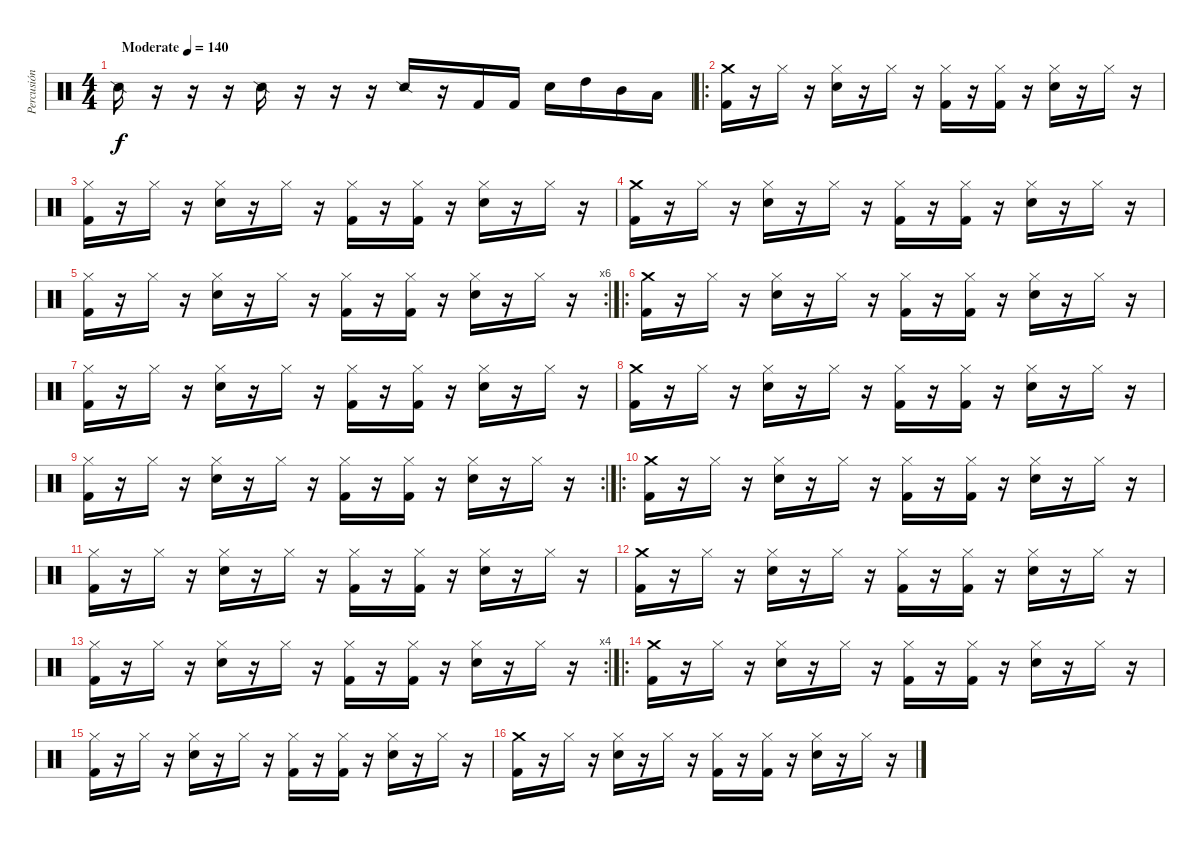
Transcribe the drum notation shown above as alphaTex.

\track ("Percusión" "Percusión") {instrument percussion}
\staff {score}
\articulation defaults
\ts (4 4)
\tempo (140 "Moderate")
\clef neutral
\ks c "Snare (side stick) 2".16{dy f}
r.16 r.16 r.16 "Snare (side stick) 2".16 r.16 r.16 r.16 "Snare (side stick) 2".16 r.16 "Kick (hit) 2".16 "Kick (hit) 2".16 "Electric Snare (hit)".16 "High Tom (hit)".16 "Mid Tom (hit)".16 "Low Tom (hit)".16 |
\ro
("Crash medium (hit)" "Kick (hit) 2").16 r.16 "Hi-Hat (closed)".16 r.16 ("Hi-Hat (closed)" "Electric Snare (hit)").16 r.16 "Hi-Hat (closed)".16 r.16 ("Hi-Hat (closed)" "Kick (hit) 2").16 r.16 ("Hi-Hat (closed)" "Kick (hit) 2").16 r.16 ("Hi-Hat (closed)" "Electric Snare (hit)").16 r.16 "Hi-Hat (closed)".16 r.16 |
("Hi-Hat (closed)" "Kick (hit) 2").16 r.16 "Hi-Hat (closed)".16 r.16 ("Hi-Hat (closed)" "Electric Snare (hit)").16 r.16 "Hi-Hat (closed)".16 r.16 ("Hi-Hat (closed)" "Kick (hit) 2").16 r.16 ("Hi-Hat (closed)" "Kick (hit) 2").16 r.16 ("Hi-Hat (closed)" "Electric Snare (hit)").16 r.16 "Hi-Hat (closed)".16 r.16 |
("Crash medium (hit)" "Kick (hit) 2").16 r.16 "Hi-Hat (closed)".16 r.16 ("Hi-Hat (closed)" "Electric Snare (hit)").16 r.16 "Hi-Hat (closed)".16 r.16 ("Hi-Hat (closed)" "Kick (hit) 2").16 r.16 ("Hi-Hat (closed)" "Kick (hit) 2").16 r.16 ("Hi-Hat (closed)" "Electric Snare (hit)").16 r.16 "Hi-Hat (closed)".16 r.16 |
\rc 6
("Hi-Hat (closed)" "Kick (hit) 2").16 r.16 "Hi-Hat (closed)".16 r.16 ("Hi-Hat (closed)" "Electric Snare (hit)").16 r.16 "Hi-Hat (closed)".16 r.16 ("Hi-Hat (closed)" "Kick (hit) 2").16 r.16 ("Hi-Hat (closed)" "Kick (hit) 2").16 r.16 ("Hi-Hat (closed)" "Electric Snare (hit)").16 r.16 "Hi-Hat (closed)".16 r.16 |
\ro
("Crash medium (hit)" "Kick (hit) 2").16 r.16 "Hi-Hat (closed)".16 r.16 ("Hi-Hat (closed)" "Electric Snare (hit)").16 r.16 "Hi-Hat (closed)".16 r.16 ("Hi-Hat (closed)" "Kick (hit) 2").16 r.16 ("Hi-Hat (closed)" "Kick (hit) 2").16 r.16 ("Hi-Hat (closed)" "Electric Snare (hit)").16 r.16 "Hi-Hat (closed)".16 r.16 |
("Hi-Hat (closed)" "Kick (hit) 2").16 r.16 "Hi-Hat (closed)".16 r.16 ("Hi-Hat (closed)" "Electric Snare (hit)").16 r.16 "Hi-Hat (closed)".16 r.16 ("Hi-Hat (closed)" "Kick (hit) 2").16 r.16 ("Hi-Hat (closed)" "Kick (hit) 2").16 r.16 ("Hi-Hat (closed)" "Electric Snare (hit)").16 r.16 "Hi-Hat (closed)".16 r.16 |
("Crash medium (hit)" "Kick (hit) 2").16 r.16 "Hi-Hat (closed)".16 r.16 ("Hi-Hat (closed)" "Electric Snare (hit)").16 r.16 "Hi-Hat (closed)".16 r.16 ("Hi-Hat (closed)" "Kick (hit) 2").16 r.16 ("Hi-Hat (closed)" "Kick (hit) 2").16 r.16 ("Hi-Hat (closed)" "Electric Snare (hit)").16 r.16 "Hi-Hat (closed)".16 r.16 |
\rc 2
("Hi-Hat (closed)" "Kick (hit) 2").16 r.16 "Hi-Hat (closed)".16 r.16 ("Hi-Hat (closed)" "Electric Snare (hit)").16 r.16 "Hi-Hat (closed)".16 r.16 ("Hi-Hat (closed)" "Kick (hit) 2").16 r.16 ("Hi-Hat (closed)" "Kick (hit) 2").16 r.16 ("Hi-Hat (closed)" "Electric Snare (hit)").16 r.16 "Hi-Hat (closed)".16 r.16 |
\ro
("Crash medium (hit)" "Kick (hit) 2").16 r.16 "Hi-Hat (closed)".16 r.16 ("Hi-Hat (closed)" "Electric Snare (hit)").16 r.16 "Hi-Hat (closed)".16 r.16 ("Hi-Hat (closed)" "Kick (hit) 2").16 r.16 ("Hi-Hat (closed)" "Kick (hit) 2").16 r.16 ("Hi-Hat (closed)" "Electric Snare (hit)").16 r.16 "Hi-Hat (closed)".16 r.16 |
("Hi-Hat (closed)" "Kick (hit) 2").16 r.16 "Hi-Hat (closed)".16 r.16 ("Hi-Hat (closed)" "Electric Snare (hit)").16 r.16 "Hi-Hat (closed)".16 r.16 ("Hi-Hat (closed)" "Kick (hit) 2").16 r.16 ("Hi-Hat (closed)" "Kick (hit) 2").16 r.16 ("Hi-Hat (closed)" "Electric Snare (hit)").16 r.16 "Hi-Hat (closed)".16 r.16 |
("Crash medium (hit)" "Kick (hit) 2").16 r.16 "Hi-Hat (closed)".16 r.16 ("Hi-Hat (closed)" "Electric Snare (hit)").16 r.16 "Hi-Hat (closed)".16 r.16 ("Hi-Hat (closed)" "Kick (hit) 2").16 r.16 ("Hi-Hat (closed)" "Kick (hit) 2").16 r.16 ("Hi-Hat (closed)" "Electric Snare (hit)").16 r.16 "Hi-Hat (closed)".16 r.16 |
\rc 4
("Hi-Hat (closed)" "Kick (hit) 2").16 r.16 "Hi-Hat (closed)".16 r.16 ("Hi-Hat (closed)" "Electric Snare (hit)").16 r.16 "Hi-Hat (closed)".16 r.16 ("Hi-Hat (closed)" "Kick (hit) 2").16 r.16 ("Hi-Hat (closed)" "Kick (hit) 2").16 r.16 ("Hi-Hat (closed)" "Electric Snare (hit)").16 r.16 "Hi-Hat (closed)".16 r.16 |
\ro
("Crash medium (hit)" "Kick (hit) 2").16 r.16 "Hi-Hat (closed)".16 r.16 ("Hi-Hat (closed)" "Electric Snare (hit)").16 r.16 "Hi-Hat (closed)".16 r.16 ("Hi-Hat (closed)" "Kick (hit) 2").16 r.16 ("Hi-Hat (closed)" "Kick (hit) 2").16 r.16 ("Hi-Hat (closed)" "Electric Snare (hit)").16 r.16 "Hi-Hat (closed)".16 r.16 |
("Hi-Hat (closed)" "Kick (hit) 2").16 r.16 "Hi-Hat (closed)".16 r.16 ("Hi-Hat (closed)" "Electric Snare (hit)").16 r.16 "Hi-Hat (closed)".16 r.16 ("Hi-Hat (closed)" "Kick (hit) 2").16 r.16 ("Hi-Hat (closed)" "Kick (hit) 2").16 r.16 ("Hi-Hat (closed)" "Electric Snare (hit)").16 r.16 "Hi-Hat (closed)".16 r.16 |
("Crash medium (hit)" "Kick (hit) 2").16 r.16 "Hi-Hat (closed)".16 r.16 ("Hi-Hat (closed)" "Electric Snare (hit)").16 r.16 "Hi-Hat (closed)".16 r.16 ("Hi-Hat (closed)" "Kick (hit) 2").16 r.16 ("Hi-Hat (closed)" "Kick (hit) 2").16 r.16 ("Hi-Hat (closed)" "Electric Snare (hit)").16 r.16 "Hi-Hat (closed)".16 r.16
